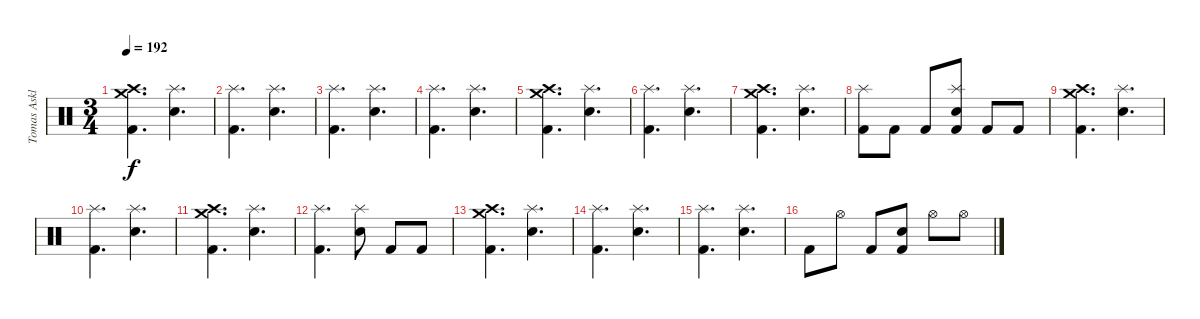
\track ("Tomas Asklund" "Tomas Askl") {instrument percussion}
\staff {score}
\articulation defaults
\ts (3 4)
\tempo 192
\clef neutral
\ks c
("Crash medium (hit)" "Crash high (hit)" "Kick (hit) 2").4{d dy f} ("Splash (hit)" "Snare (hit) 2").4{d} |
("Splash (hit)" "Kick (hit) 2").4{d} ("Splash (hit)" "Snare (hit) 2").4{d} |
("Splash (hit)" "Kick (hit) 2").4{d} ("Splash (hit)" "Snare (hit) 2").4{d} |
("Splash (hit)" "Kick (hit) 2").4{d} ("Splash (hit)" "Snare (hit) 2").4{d} |
("Crash medium (hit)" "Crash high (hit)" "Kick (hit) 2").4{d} ("Splash (hit)" "Snare (hit) 2").4{d} |
("Splash (hit)" "Kick (hit) 2").4{d} ("Splash (hit)" "Snare (hit) 2").4{d} |
("Crash medium (hit)" "Crash high (hit)" "Kick (hit) 2").4{d} ("Splash (hit)" "Snare (hit) 2").4{d} |
("Splash (hit)" "Kick (hit) 2").8 "Kick (hit) 2".8 "Kick (hit) 2".8 ("Splash (hit)" "Snare (hit) 2" "Kick (hit) 2").8 "Kick (hit) 2".8 "Kick (hit) 2".8 |
("Crash medium (hit)" "Crash high (hit)" "Kick (hit) 2").4{d} ("Splash (hit)" "Snare (hit) 2").4{d} |
("Splash (hit)" "Kick (hit) 2").4{d} ("Splash (hit)" "Snare (hit) 2").4{d} |
("Crash medium (hit)" "Crash high (hit)" "Kick (hit) 2").4{d} ("Splash (hit)" "Snare (hit) 2").4{d} |
("Splash (hit)" "Kick (hit) 2").4{d} ("Splash (hit)" "Snare (hit) 2").8 "Kick (hit) 2".8 "Kick (hit) 2".8 |
("Crash medium (hit)" "Crash high (hit)" "Kick (hit) 2").4{d} ("Splash (hit)" "Snare (hit) 2").4{d} |
("Splash (hit)" "Kick (hit) 2").4{d} ("Splash (hit)" "Snare (hit) 2").4{d} |
("Splash (hit)" "Kick (hit) 2").4{d} ("Splash (hit)" "Snare (hit) 2").4{d} |
"Kick (hit) 2".8 "Hi-Hat (open)".8 "Kick (hit) 2".8 ("Snare (hit) 2" "Kick (hit) 2").8 "Hi-Hat (open)".8 "Hi-Hat (open)".8
